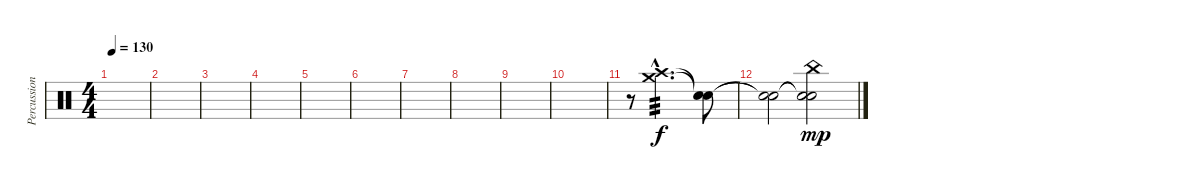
\track ("Percussion (Bela)" "Percussion") {instrument percussion}
\staff {score}
\articulation defaults
\ts (4 4)
\tempo 130
\clef neutral
\ks c
|
|
|
|
|
|
|
|
|
|
r.8 ("Crash high (hit)"{hac} "Crash medium (hit)"{hac}).2{d tp 3} ("Snare (hit)"{t} "Snare (hit)"{t}).8 |
("Snare (hit)"{t} "Snare (hit)"{t}).2{volume 4} ("Snare (hit)"{t} "Snare (hit)"{t} "China (hit)").2{dy mp}
